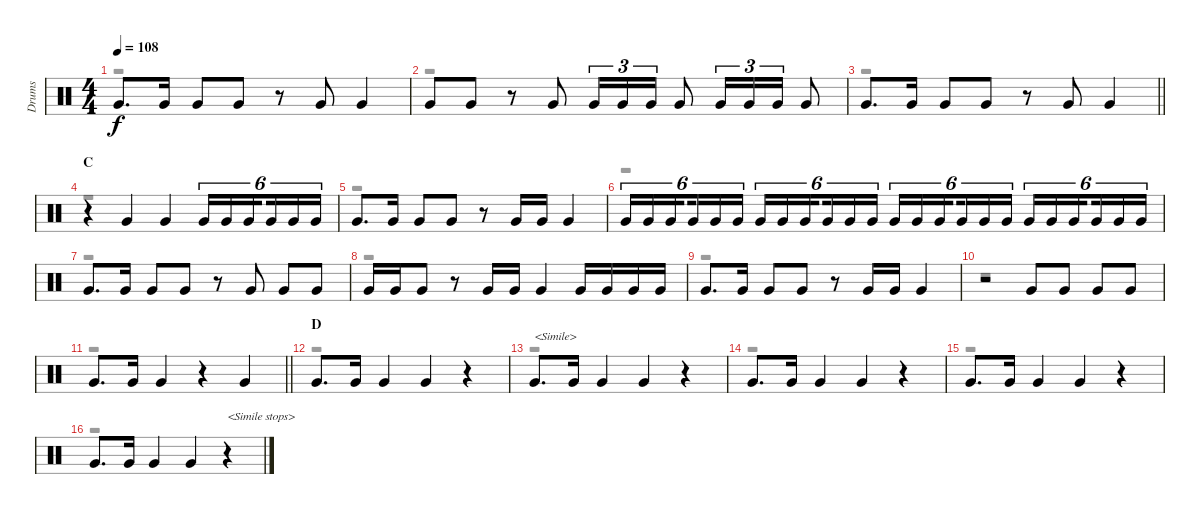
\track ("Drums" "Drums") {instrument percussion}
\staff {score}
\articulation defaults
\voice
\ts (4 4)
\tempo 108
\clef neutral
\ks c "Very Low Tom (hit)".8{d dy f} "Very Low Tom (hit)".16 "Very Low Tom (hit)".8 "Very Low Tom (hit)".8
r.8 "Very Low Tom (hit)".8 "Very Low Tom (hit)".4 |
"Very Low Tom (hit)".8 "Very Low Tom (hit)".8 r.8 "Very Low Tom (hit)".8 "Very Low Tom (hit)".16{tu (3 2)} "Very Low Tom (hit)".16{tu (3 2)} "Very Low Tom (hit)".16{tu (3 2)} "Very Low Tom (hit)".8 "Very Low Tom (hit)".16{tu (3 2)} "Very Low Tom (hit)".16{tu (3 2)} "Very Low Tom (hit)".16{tu (3 2)} "Very Low Tom (hit)".8 |
\barLineRight lightlight "Very Low Tom (hit)".8{d} "Very Low Tom (hit)".16 "Very Low Tom (hit)".8 "Very Low Tom (hit)".8
r.8 "Very Low Tom (hit)".8 "Very Low Tom (hit)".4 |
\section ("" "C")
r.4 "Very Low Tom (hit)".4 "Very Low Tom (hit)".4 "Very Low Tom (hit)".16{tu (6 4)} "Very Low Tom (hit)".16{tu (6 4)} "Very Low Tom (hit)".16{tu (6 4) beam splitsecondary} "Very Low Tom (hit)".16{tu (6 4)} "Very Low Tom (hit)".16{tu (6 4)} "Very Low Tom (hit)".16{tu (6 4)} |
"Very Low Tom (hit)".8{d} "Very Low Tom (hit)".16 "Very Low Tom (hit)".8 "Very Low Tom (hit)".8 r.8 "Very Low Tom (hit)".16 "Very Low Tom (hit)".16 "Very Low Tom (hit)".4 |
"Very Low Tom (hit)".16{tu (6 4)} "Very Low Tom (hit)".16{tu (6 4)} "Very Low Tom (hit)".16{tu (6 4) beam splitsecondary} "Very Low Tom (hit)".16{tu (6 4)} "Very Low Tom (hit)".16{tu (6 4)} "Very Low Tom (hit)".16{tu (6 4)} "Very Low Tom (hit)".16{tu (6 4)} "Very Low Tom (hit)".16{tu (6 4)} "Very Low Tom (hit)".16{tu (6 4) beam splitsecondary} "Very Low Tom (hit)".16{tu (6 4)} "Very Low Tom (hit)".16{tu (6 4)} "Very Low Tom (hit)".16{tu (6 4)} "Very Low Tom (hit)".16{tu (6 4)} "Very Low Tom (hit)".16{tu (6 4)} "Very Low Tom (hit)".16{tu (6 4) beam splitsecondary} "Very Low Tom (hit)".16{tu (6 4)} "Very Low Tom (hit)".16{tu (6 4)} "Very Low Tom (hit)".16{tu (6 4)} "Very Low Tom (hit)".16{tu (6 4)} "Very Low Tom (hit)".16{tu (6 4)} "Very Low Tom (hit)".16{tu (6 4) beam splitsecondary} "Very Low Tom (hit)".16{tu (6 4)} "Very Low Tom (hit)".16{tu (6 4)} "Very Low Tom (hit)".16{tu (6 4)} |
"Very Low Tom (hit)".8{d} "Very Low Tom (hit)".16 "Very Low Tom (hit)".8 "Very Low Tom (hit)".8 r.8 "Very Low Tom (hit)".8 "Very Low Tom (hit)".8 "Very Low Tom (hit)".8 |
"Very Low Tom (hit)".16 "Very Low Tom (hit)".16 "Very Low Tom (hit)".8 r.8 "Very Low Tom (hit)".16 "Very Low Tom (hit)".16 "Very Low Tom (hit)".4 "Very Low Tom (hit)".16 "Very Low Tom (hit)".16 "Very Low Tom (hit)".16 "Very Low Tom (hit)".16 |
"Very Low Tom (hit)".8{d} "Very Low Tom (hit)".16 "Very Low Tom (hit)".8 "Very Low Tom (hit)".8 r.8 "Very Low Tom (hit)".16 "Very Low Tom (hit)".16 "Very Low Tom (hit)".4 |
r.2 "Very Low Tom (hit)".8 "Very Low Tom (hit)".8 "Very Low Tom (hit)".8 "Very Low Tom (hit)".8 |
\barLineRight lightlight "Very Low Tom (hit)".8{d} "Very Low Tom (hit)".16 "Very Low Tom (hit)".4
r.4 "Very Low Tom (hit)".4 |
\section ("" "D")
"Very Low Tom (hit)".8{d} "Very Low Tom (hit)".16 "Very Low Tom (hit)".4 "Very Low Tom (hit)".4 r.4 |
"Very Low Tom (hit)".8{d txt "<Simile>"} "Very Low Tom (hit)".16 "Very Low Tom (hit)".4 "Very Low Tom (hit)".4 r.4 |
"Very Low Tom (hit)".8{d} "Very Low Tom (hit)".16 "Very Low Tom (hit)".4 "Very Low Tom (hit)".4 r.4 |
"Very Low Tom (hit)".8{d} "Very Low Tom (hit)".16 "Very Low Tom (hit)".4 "Very Low Tom (hit)".4 r.4 |
"Very Low Tom (hit)".8{d} "Very Low Tom (hit)".16 "Very Low Tom (hit)".4 "Very Low Tom (hit)".4 r.4{txt "<Simile stops>"}
\voice
\clef neutral
\ottava regular
\simile none
\ks c
r.1{dy fff} |
r.1 |
\barLineRight lightlight
r.1 |
r.1 |
r.1 |
r.1 |
r.1 |
r.1 |
r.1 |
r.1 |
\barLineRight lightlight
r.1 |
r.1 |
r.1 |
r.1 |
r.1 |
r.1
